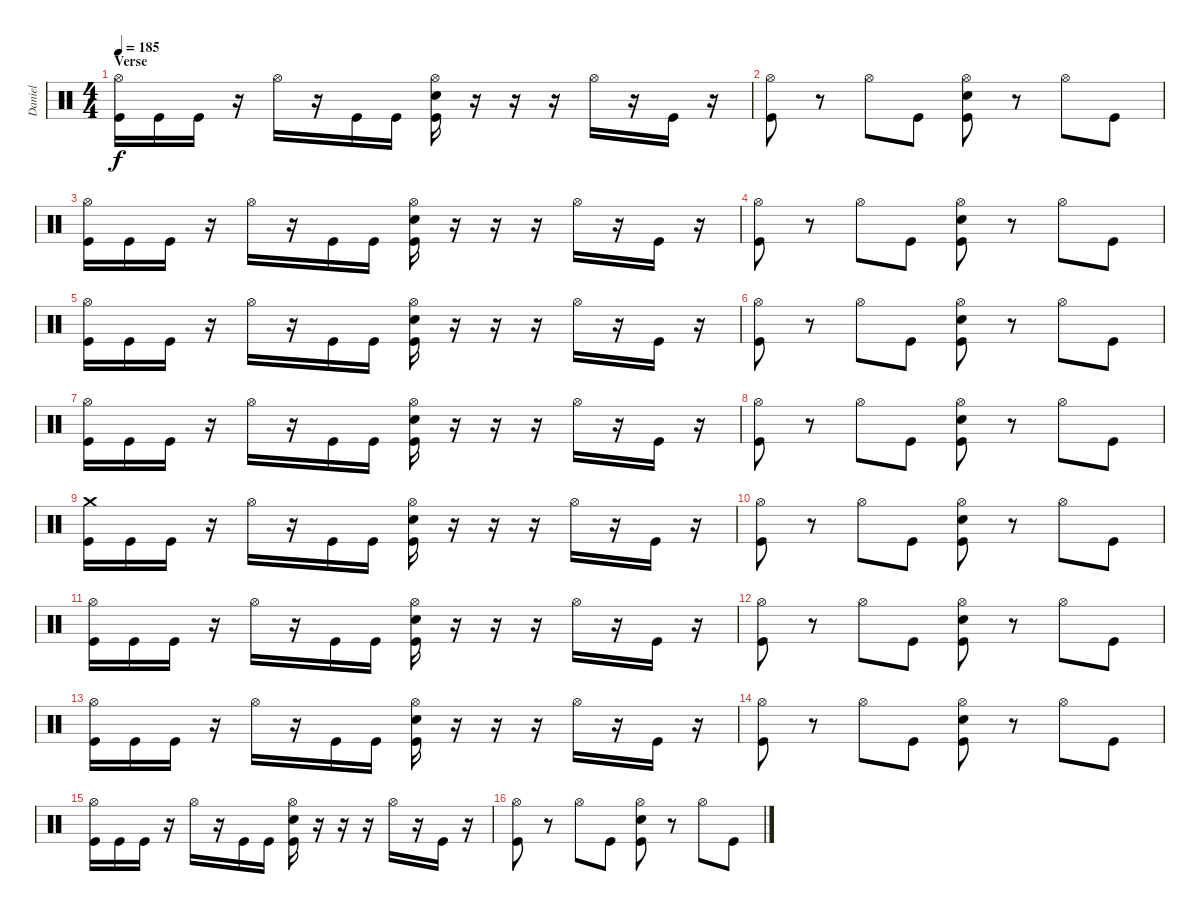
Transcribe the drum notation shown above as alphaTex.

\track ("Daniel" "Daniel") {instrument percussion}
\staff {score}
\articulation defaults
\ts (4 4)
\section ("" "Verse")
\tempo 185
\clef neutral
\ks c
("Hi-Hat (open)" "Kick (hit)").16{dy f} "Kick (hit)".16 "Kick (hit)".16 r.16 "Hi-Hat (open)".16 r.16 "Kick (hit)".16 "Kick (hit)".16 ("Hi-Hat (open)" "Snare (hit) 2" "Kick (hit)").16 r.16 r.16 r.16 "Hi-Hat (open)".16 r.16 "Kick (hit)".16 r.16 |
("Hi-Hat (open)" "Kick (hit)").8 r.8 "Hi-Hat (open)".8 "Kick (hit)".8 ("Hi-Hat (open)" "Snare (hit) 2" "Kick (hit)").8 r.8 "Hi-Hat (open)".8 "Kick (hit)".8 |
("Hi-Hat (open)" "Kick (hit)").16 "Kick (hit)".16 "Kick (hit)".16 r.16 "Hi-Hat (open)".16 r.16 "Kick (hit)".16 "Kick (hit)".16 ("Hi-Hat (open)" "Snare (hit) 2" "Kick (hit)").16 r.16 r.16 r.16 "Hi-Hat (open)".16 r.16 "Kick (hit)".16 r.16 |
("Hi-Hat (open)" "Kick (hit)").8 r.8 "Hi-Hat (open)".8 "Kick (hit)".8 ("Hi-Hat (open)" "Snare (hit) 2" "Kick (hit)").8 r.8 "Hi-Hat (open)".8 "Kick (hit)".8 |
("Hi-Hat (open)" "Kick (hit)").16 "Kick (hit)".16 "Kick (hit)".16 r.16 "Hi-Hat (open)".16 r.16 "Kick (hit)".16 "Kick (hit)".16 ("Hi-Hat (open)" "Snare (hit) 2" "Kick (hit)").16 r.16 r.16 r.16 "Hi-Hat (open)".16 r.16 "Kick (hit)".16 r.16 |
("Hi-Hat (open)" "Kick (hit)").8 r.8 "Hi-Hat (open)".8 "Kick (hit)".8 ("Hi-Hat (open)" "Snare (hit) 2" "Kick (hit)").8 r.8 "Hi-Hat (open)".8 "Kick (hit)".8 |
("Hi-Hat (open)" "Kick (hit)").16 "Kick (hit)".16 "Kick (hit)".16 r.16 "Hi-Hat (open)".16 r.16 "Kick (hit)".16 "Kick (hit)".16 ("Hi-Hat (open)" "Snare (hit) 2" "Kick (hit)").16 r.16 r.16 r.16 "Hi-Hat (open)".16 r.16 "Kick (hit)".16 r.16 |
("Hi-Hat (open)" "Kick (hit)").8 r.8 "Hi-Hat (open)".8 "Kick (hit)".8 ("Hi-Hat (open)" "Snare (hit) 2" "Kick (hit)").8 r.8 "Hi-Hat (open)".8 "Kick (hit)".8 |
("Crash medium (hit)" "Kick (hit)").16 "Kick (hit)".16 "Kick (hit)".16 r.16 "Hi-Hat (open)".16 r.16 "Kick (hit)".16 "Kick (hit)".16 ("Hi-Hat (open)" "Snare (hit) 2" "Kick (hit)").16 r.16 r.16 r.16 "Hi-Hat (open)".16 r.16 "Kick (hit)".16 r.16 |
("Hi-Hat (open)" "Kick (hit)").8 r.8 "Hi-Hat (open)".8 "Kick (hit)".8 ("Hi-Hat (open)" "Snare (hit) 2" "Kick (hit)").8 r.8 "Hi-Hat (open)".8 "Kick (hit)".8 |
("Hi-Hat (open)" "Kick (hit)").16 "Kick (hit)".16 "Kick (hit)".16 r.16 "Hi-Hat (open)".16 r.16 "Kick (hit)".16 "Kick (hit)".16 ("Hi-Hat (open)" "Snare (hit) 2" "Kick (hit)").16 r.16 r.16 r.16 "Hi-Hat (open)".16 r.16 "Kick (hit)".16 r.16 |
("Hi-Hat (open)" "Kick (hit)").8 r.8 "Hi-Hat (open)".8 "Kick (hit)".8 ("Hi-Hat (open)" "Snare (hit) 2" "Kick (hit)").8 r.8 "Hi-Hat (open)".8 "Kick (hit)".8 |
("Hi-Hat (open)" "Kick (hit)").16 "Kick (hit)".16 "Kick (hit)".16 r.16 "Hi-Hat (open)".16 r.16 "Kick (hit)".16 "Kick (hit)".16 ("Hi-Hat (open)" "Snare (hit) 2" "Kick (hit)").16 r.16 r.16 r.16 "Hi-Hat (open)".16 r.16 "Kick (hit)".16 r.16 |
("Hi-Hat (open)" "Kick (hit)").8 r.8 "Hi-Hat (open)".8 "Kick (hit)".8 ("Hi-Hat (open)" "Snare (hit) 2" "Kick (hit)").8 r.8 "Hi-Hat (open)".8 "Kick (hit)".8 |
("Hi-Hat (open)" "Kick (hit)").16 "Kick (hit)".16 "Kick (hit)".16 r.16 "Hi-Hat (open)".16 r.16 "Kick (hit)".16 "Kick (hit)".16 ("Hi-Hat (open)" "Snare (hit) 2" "Kick (hit)").16 r.16 r.16 r.16 "Hi-Hat (open)".16 r.16 "Kick (hit)".16 r.16 |
("Hi-Hat (open)" "Kick (hit)").8 r.8 "Hi-Hat (open)".8 "Kick (hit)".8 ("Hi-Hat (open)" "Snare (hit) 2" "Kick (hit)").8 r.8 "Hi-Hat (open)".8 "Kick (hit)".8
